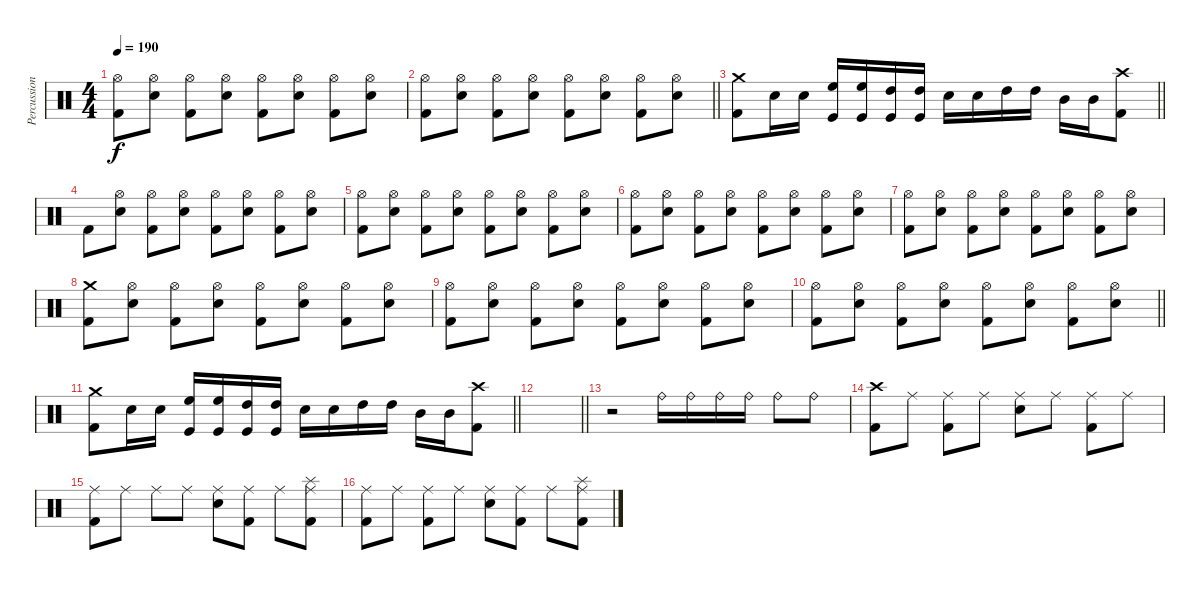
\track ("Percussions" "Percussion") {instrument percussion}
\staff {score}
\articulation defaults
\ts (4 4)
\tempo 190
\clef neutral
\ks c
("Hi-Hat (open)" "Kick (hit) 2").8{dy f} ("Hi-Hat (open)" "Electric Snare (hit)").8 ("Hi-Hat (open)" "Kick (hit) 2").8 ("Hi-Hat (open)" "Electric Snare (hit)").8 ("Hi-Hat (open)" "Kick (hit) 2").8 ("Hi-Hat (open)" "Electric Snare (hit)").8 ("Hi-Hat (open)" "Kick (hit) 2").8 ("Hi-Hat (open)" "Electric Snare (hit)").8 |
\barLineRight lightlight
("Hi-Hat (open)" "Kick (hit) 2").8 ("Hi-Hat (open)" "Electric Snare (hit)").8 ("Hi-Hat (open)" "Kick (hit) 2").8 ("Hi-Hat (open)" "Electric Snare (hit)").8 ("Hi-Hat (open)" "Kick (hit) 2").8 ("Hi-Hat (open)" "Electric Snare (hit)").8 ("Hi-Hat (open)" "Kick (hit) 2").8 ("Hi-Hat (open)" "Electric Snare (hit)").8 |
\barLineRight lightlight
("Crash medium (hit)" "Kick (hit) 2").8 "Electric Snare (hit)".16 "Electric Snare (hit)".16 ("High Floor Tom (hit)" "Kick (hit)").16 ("High Floor Tom (hit)" "Kick (hit)").16 ("High Tom (hit)" "Kick (hit)").16 ("High Tom (hit)" "Kick (hit)").16 "Electric Snare (hit)".16 "Electric Snare (hit)".16 "High Tom (hit)".16 "High Tom (hit)".16 "Mid Tom (hit)".16 "Mid Tom (hit)".16 ("Crash high (hit)" "Kick (hit) 2").8 |
"Kick (hit) 2".8 ("Hi-Hat (open)" "Electric Snare (hit)").8 ("Hi-Hat (open)" "Kick (hit) 2").8 ("Hi-Hat (open)" "Electric Snare (hit)").8 ("Hi-Hat (open)" "Kick (hit) 2").8 ("Hi-Hat (open)" "Electric Snare (hit)").8 ("Hi-Hat (open)" "Kick (hit) 2").8 ("Hi-Hat (open)" "Electric Snare (hit)").8 |
("Hi-Hat (open)" "Kick (hit) 2").8 ("Hi-Hat (open)" "Electric Snare (hit)").8 ("Hi-Hat (open)" "Kick (hit) 2").8 ("Hi-Hat (open)" "Electric Snare (hit)").8 ("Hi-Hat (open)" "Kick (hit) 2").8 ("Hi-Hat (open)" "Electric Snare (hit)").8 ("Hi-Hat (open)" "Kick (hit) 2").8 ("Hi-Hat (open)" "Electric Snare (hit)").8 |
("Hi-Hat (open)" "Kick (hit) 2").8 ("Hi-Hat (open)" "Electric Snare (hit)").8 ("Hi-Hat (open)" "Kick (hit) 2").8 ("Hi-Hat (open)" "Electric Snare (hit)").8 ("Hi-Hat (open)" "Kick (hit) 2").8 ("Hi-Hat (open)" "Electric Snare (hit)").8 ("Hi-Hat (open)" "Kick (hit) 2").8 ("Hi-Hat (open)" "Electric Snare (hit)").8 |
("Hi-Hat (open)" "Kick (hit) 2").8 ("Hi-Hat (open)" "Electric Snare (hit)").8 ("Hi-Hat (open)" "Kick (hit) 2").8 ("Hi-Hat (open)" "Electric Snare (hit)").8 ("Hi-Hat (open)" "Kick (hit) 2").8 ("Hi-Hat (open)" "Electric Snare (hit)").8 ("Hi-Hat (open)" "Kick (hit) 2").8 ("Hi-Hat (open)" "Electric Snare (hit)").8 |
("Crash medium (hit)" "Kick (hit) 2").8 ("Hi-Hat (open)" "Electric Snare (hit)").8 ("Hi-Hat (open)" "Kick (hit) 2").8 ("Hi-Hat (open)" "Electric Snare (hit)").8 ("Hi-Hat (open)" "Kick (hit) 2").8 ("Hi-Hat (open)" "Electric Snare (hit)").8 ("Hi-Hat (open)" "Kick (hit) 2").8 ("Hi-Hat (open)" "Electric Snare (hit)").8 |
("Hi-Hat (open)" "Kick (hit) 2").8 ("Hi-Hat (open)" "Electric Snare (hit)").8 ("Hi-Hat (open)" "Kick (hit) 2").8 ("Hi-Hat (open)" "Electric Snare (hit)").8 ("Hi-Hat (open)" "Kick (hit) 2").8 ("Hi-Hat (open)" "Electric Snare (hit)").8 ("Hi-Hat (open)" "Kick (hit) 2").8 ("Hi-Hat (open)" "Electric Snare (hit)").8 |
\barLineRight lightlight
("Hi-Hat (open)" "Kick (hit) 2").8 ("Hi-Hat (open)" "Electric Snare (hit)").8 ("Hi-Hat (open)" "Kick (hit) 2").8 ("Hi-Hat (open)" "Electric Snare (hit)").8 ("Hi-Hat (open)" "Kick (hit) 2").8 ("Hi-Hat (open)" "Electric Snare (hit)").8 ("Hi-Hat (open)" "Kick (hit) 2").8 ("Hi-Hat (open)" "Electric Snare (hit)").8 |
\barLineRight lightlight
("Crash medium (hit)" "Kick (hit) 2").8 "Electric Snare (hit)".16 "Electric Snare (hit)".16 ("High Floor Tom (hit)" "Kick (hit)").16 ("High Floor Tom (hit)" "Kick (hit)").16 ("High Tom (hit)" "Kick (hit)").16 ("High Tom (hit)" "Kick (hit)").16 "Electric Snare (hit)".16 "Electric Snare (hit)".16 "High Tom (hit)".16 "High Tom (hit)".16 "Mid Tom (hit)".16 "Mid Tom (hit)".16 ("Crash high (hit)" "Kick (hit) 2").8 |
\section ("" "")
\barLineRight lightlight
|
r.2 "Ride (bell)".16 "Ride (bell)".16 "Ride (bell)".16 "Ride (bell)".16 "Ride (bell)".8 "Ride (bell)".8 |
("Crash high (hit)" "Kick (hit) 2").8 "Ride (middle)".8 ("Ride (middle)" "Kick (hit) 2").8 "Ride (middle)".8 ("Ride (middle)" "Electric Snare (hit)").8 "Ride (middle)".8 ("Ride (middle)" "Kick (hit) 2").8 "Ride (middle)".8 |
("Ride (middle)" "Kick (hit) 2").8 "Ride (middle)".8 "Ride (middle)".8 "Ride (middle)".8 ("Ride (middle)" "Electric Snare (hit)").8 ("Ride (middle)" "Kick (hit) 2").8 "Ride (middle)".8 ("Ride (middle)" "Splash (hit)" "Kick (hit) 2").8 |
("Ride (middle)" "Kick (hit) 2").8 "Ride (middle)".8 ("Ride (middle)" "Kick (hit) 2").8 "Ride (middle)".8 ("Ride (middle)" "Electric Snare (hit)").8 ("Ride (middle)" "Kick (hit) 2").8 "Ride (middle)".8 ("Ride (middle)" "Splash (hit)" "Kick (hit) 2").8
